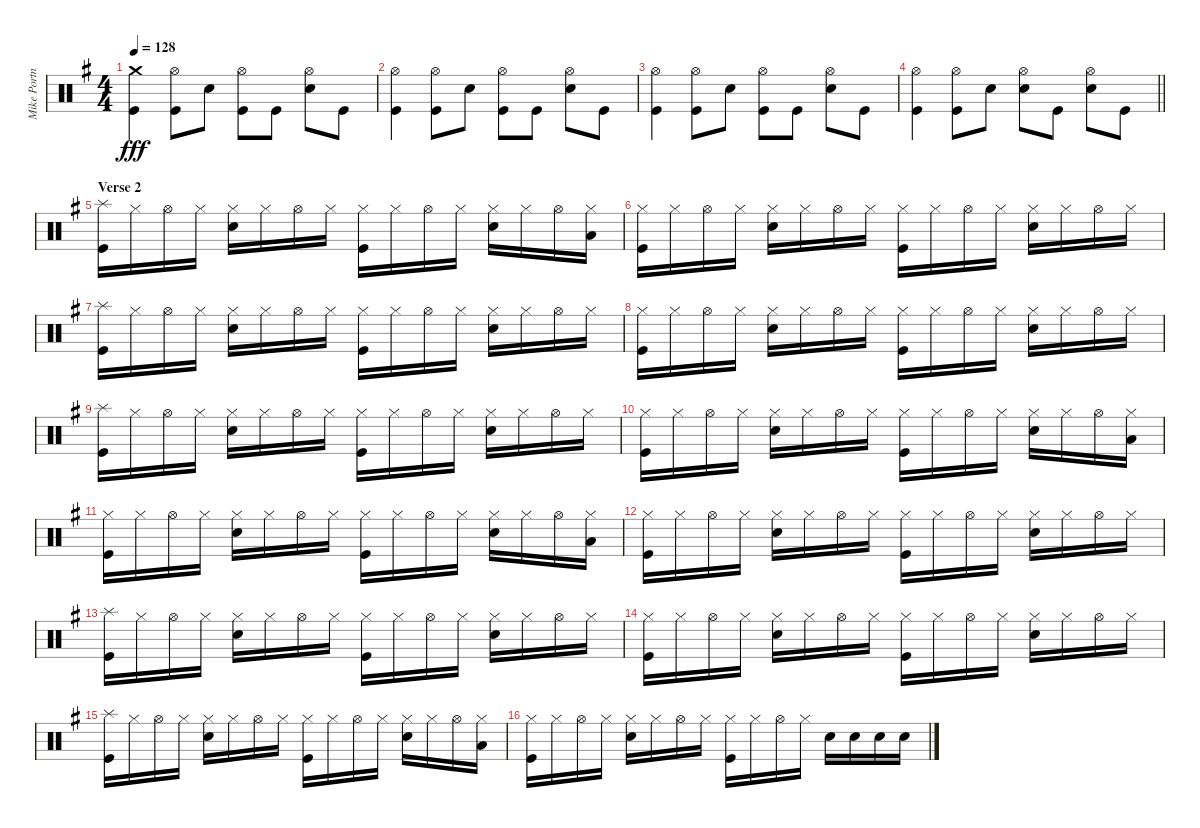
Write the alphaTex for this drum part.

\track ("Mike Portnoy" "Mike Portn") {instrument percussion}
\staff {score}
\articulation defaults
\ts (4 4)
\tempo 128
\clef neutral
\ks eminor
("Kick (hit)" "Crash medium (hit)").4{dy fff} ("Kick (hit)" "Hi-Hat (open)").8 "Snare (hit) 2".8 ("Kick (hit)" "Hi-Hat (open)").8 "Kick (hit)".8 ("Snare (hit) 2" "Hi-Hat (open)").8 "Kick (hit)".8 |
("Kick (hit)" "Hi-Hat (open)").4 ("Kick (hit)" "Hi-Hat (open)").8 "Snare (hit) 2".8 ("Kick (hit)" "Hi-Hat (open)").8 "Kick (hit)".8 ("Snare (hit) 2" "Hi-Hat (open)").8 "Kick (hit)".8 |
("Kick (hit)" "Hi-Hat (open)").4 ("Kick (hit)" "Hi-Hat (open)").8 "Snare (hit) 2".8 ("Kick (hit)" "Hi-Hat (open)").8 "Kick (hit)".8 ("Snare (hit) 2" "Hi-Hat (open)").8 "Kick (hit)".8 |
\barLineRight lightlight
("Kick (hit)" "Hi-Hat (open)").4 ("Kick (hit)" "Hi-Hat (open)").8 "Snare (hit) 2".8 ("Snare (hit) 2" "Hi-Hat (open)").8 "Kick (hit)".8 ("Snare (hit) 2" "Hi-Hat (open)").8 "Kick (hit)".8 |
\section ("" "Verse 2")
("Splash (hit)" "Kick (hit)").16 "Hi-Hat (closed)".16 "Hi-Hat (open)".16 "Hi-Hat (closed)".16 ("Hi-Hat (closed)" "Snare (hit) 2").16 "Hi-Hat (closed)".16 "Hi-Hat (open)".16 "Hi-Hat (closed)".16 ("Hi-Hat (closed)" "Kick (hit)").16 "Hi-Hat (closed)".16 "Hi-Hat (open)".16 "Hi-Hat (closed)".16 ("Hi-Hat (closed)" "Snare (hit) 2").16 "Hi-Hat (closed)".16 "Hi-Hat (open)".16 ("Hi-Hat (closed)" "Low Floor Tom (hit)").16 |
("Hi-Hat (closed)" "Kick (hit)").16 "Hi-Hat (closed)".16 "Hi-Hat (open)".16 "Hi-Hat (closed)".16 ("Hi-Hat (closed)" "Snare (hit) 2").16 "Hi-Hat (closed)".16 "Hi-Hat (open)".16 "Hi-Hat (closed)".16 ("Hi-Hat (closed)" "Kick (hit)").16 "Hi-Hat (closed)".16 "Hi-Hat (open)".16 "Hi-Hat (closed)".16 ("Hi-Hat (closed)" "Snare (hit) 2").16 "Hi-Hat (closed)".16 "Hi-Hat (open)".16 "Hi-Hat (closed)".16 |
("Splash (hit)" "Kick (hit)").16 "Hi-Hat (closed)".16 "Hi-Hat (open)".16 "Hi-Hat (closed)".16 ("Hi-Hat (closed)" "Snare (hit) 2").16 "Hi-Hat (closed)".16 "Hi-Hat (open)".16 "Hi-Hat (closed)".16 ("Hi-Hat (closed)" "Kick (hit)").16 "Hi-Hat (closed)".16 "Hi-Hat (open)".16 "Hi-Hat (closed)".16 ("Hi-Hat (closed)" "Snare (hit) 2").16 "Hi-Hat (closed)".16 "Hi-Hat (open)".16 "Hi-Hat (closed)".16 |
("Hi-Hat (closed)" "Kick (hit)").16 "Hi-Hat (closed)".16 "Hi-Hat (open)".16 "Hi-Hat (closed)".16 ("Hi-Hat (closed)" "Snare (hit) 2").16 "Hi-Hat (closed)".16 "Hi-Hat (open)".16 "Hi-Hat (closed)".16 ("Hi-Hat (closed)" "Kick (hit)").16 "Hi-Hat (closed)".16 "Hi-Hat (open)".16 "Hi-Hat (closed)".16 ("Hi-Hat (closed)" "Snare (hit) 2").16 "Hi-Hat (closed)".16 "Hi-Hat (open)".16 "Hi-Hat (closed)".16 |
("Splash (hit)" "Kick (hit)").16 "Hi-Hat (closed)".16 "Hi-Hat (open)".16 "Hi-Hat (closed)".16 ("Hi-Hat (closed)" "Snare (hit) 2").16 "Hi-Hat (closed)".16 "Hi-Hat (open)".16 "Hi-Hat (closed)".16 ("Hi-Hat (closed)" "Kick (hit)").16 "Hi-Hat (closed)".16 "Hi-Hat (open)".16 "Hi-Hat (closed)".16 ("Hi-Hat (closed)" "Snare (hit) 2").16 "Hi-Hat (closed)".16 "Hi-Hat (open)".16 "Hi-Hat (closed)".16 |
("Hi-Hat (closed)" "Kick (hit)").16 "Hi-Hat (closed)".16 "Hi-Hat (open)".16 "Hi-Hat (closed)".16 ("Hi-Hat (closed)" "Snare (hit) 2").16 "Hi-Hat (closed)".16 "Hi-Hat (open)".16 "Hi-Hat (closed)".16 ("Hi-Hat (closed)" "Kick (hit)").16 "Hi-Hat (closed)".16 "Hi-Hat (open)".16 "Hi-Hat (closed)".16 ("Hi-Hat (closed)" "Snare (hit) 2").16 "Hi-Hat (closed)".16 "Hi-Hat (open)".16 ("Hi-Hat (closed)" "Low Floor Tom (hit)").16 |
("Hi-Hat (closed)" "Kick (hit)").16 "Hi-Hat (closed)".16 "Hi-Hat (open)".16 "Hi-Hat (closed)".16 ("Hi-Hat (closed)" "Snare (hit) 2").16 "Hi-Hat (closed)".16 "Hi-Hat (open)".16 "Hi-Hat (closed)".16 ("Hi-Hat (closed)" "Kick (hit)").16 "Hi-Hat (closed)".16 "Hi-Hat (open)".16 "Hi-Hat (closed)".16 ("Hi-Hat (closed)" "Snare (hit) 2").16 "Hi-Hat (closed)".16 "Hi-Hat (open)".16 ("Hi-Hat (closed)" "Low Floor Tom (hit)").16 |
("Hi-Hat (closed)" "Kick (hit)").16 "Hi-Hat (closed)".16 "Hi-Hat (open)".16 "Hi-Hat (closed)".16 ("Hi-Hat (closed)" "Snare (hit) 2").16 "Hi-Hat (closed)".16 "Hi-Hat (open)".16 "Hi-Hat (closed)".16 ("Hi-Hat (closed)" "Kick (hit)").16 "Hi-Hat (closed)".16 "Hi-Hat (open)".16 "Hi-Hat (closed)".16 ("Hi-Hat (closed)" "Snare (hit) 2").16 "Hi-Hat (closed)".16 "Hi-Hat (open)".16 "Hi-Hat (closed)".16 |
("Splash (hit)" "Kick (hit)").16 "Hi-Hat (closed)".16 "Hi-Hat (open)".16 "Hi-Hat (closed)".16 ("Hi-Hat (closed)" "Snare (hit) 2").16 "Hi-Hat (closed)".16 "Hi-Hat (open)".16 "Hi-Hat (closed)".16 ("Hi-Hat (closed)" "Kick (hit)").16 "Hi-Hat (closed)".16 "Hi-Hat (open)".16 "Hi-Hat (closed)".16 ("Hi-Hat (closed)" "Snare (hit) 2").16 "Hi-Hat (closed)".16 "Hi-Hat (open)".16 "Hi-Hat (closed)".16 |
("Hi-Hat (closed)" "Kick (hit)").16 "Hi-Hat (closed)".16 "Hi-Hat (open)".16 "Hi-Hat (closed)".16 ("Hi-Hat (closed)" "Snare (hit) 2").16 "Hi-Hat (closed)".16 "Hi-Hat (open)".16 "Hi-Hat (closed)".16 ("Hi-Hat (closed)" "Kick (hit)").16 "Hi-Hat (closed)".16 "Hi-Hat (open)".16 "Hi-Hat (closed)".16 ("Hi-Hat (closed)" "Snare (hit) 2").16 "Hi-Hat (closed)".16 "Hi-Hat (open)".16 "Hi-Hat (closed)".16 |
("Splash (hit)" "Kick (hit)").16 "Hi-Hat (closed)".16 "Hi-Hat (open)".16 "Hi-Hat (closed)".16 ("Hi-Hat (closed)" "Snare (hit) 2").16 "Hi-Hat (closed)".16 "Hi-Hat (open)".16 "Hi-Hat (closed)".16 ("Hi-Hat (closed)" "Kick (hit)").16 "Hi-Hat (closed)".16 "Hi-Hat (open)".16 "Hi-Hat (closed)".16 ("Hi-Hat (closed)" "Snare (hit) 2").16 "Hi-Hat (closed)".16 "Hi-Hat (open)".16 ("Hi-Hat (closed)" "Low Floor Tom (hit)").16 |
("Hi-Hat (closed)" "Kick (hit)").16 "Hi-Hat (closed)".16 "Hi-Hat (open)".16 "Hi-Hat (closed)".16 ("Hi-Hat (closed)" "Snare (hit) 2").16 "Hi-Hat (closed)".16 "Hi-Hat (open)".16 "Hi-Hat (closed)".16 ("Hi-Hat (closed)" "Kick (hit)").16 "Hi-Hat (closed)".16 "Hi-Hat (open)".16 "Hi-Hat (closed)".16 "Snare (hit) 2".16 "Snare (hit) 2".16 "Snare (hit) 2".16 "Snare (hit) 2".16
